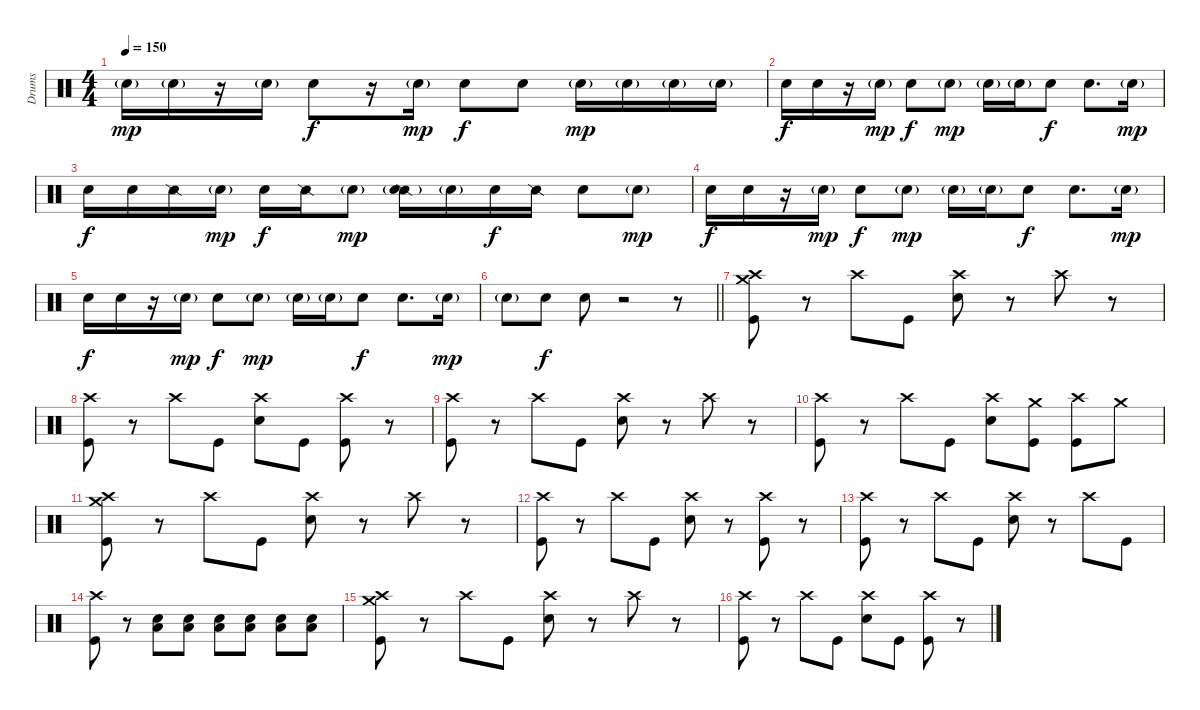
\track ("Drums" "Drums") {instrument percussion}
\staff {score}
\articulation defaults
\ts (4 4)
\tempo 150
\clef neutral
\ks c "Snare (hit) 2"{g}.16{dy mp} "Snare (hit) 2"{g}.16
r.16 "Snare (hit) 2"{g}.16 "Snare (hit) 2".8{dy f} r.16 "Snare (hit) 2"{g}.16{dy mp} "Snare (hit) 2".8{dy f} "Snare (hit) 2".8 "Snare (hit) 2"{g}.16{dy mp} "Snare (hit) 2"{g}.16 "Snare (hit) 2"{g}.16 "Snare (hit) 2"{g}.16 |
"Snare (hit) 2".16{dy f} "Snare (hit) 2".16 r.16 "Snare (hit) 2"{g}.16{dy mp} "Snare (hit) 2".8{dy f} "Snare (hit) 2"{g}.8{dy mp} "Snare (hit) 2"{g}.16 "Snare (hit) 2"{g}.16 "Snare (hit) 2".8{dy f} "Snare (hit) 2".8{d} "Snare (hit) 2"{g}.16{dy mp} |
"Snare (hit) 2".16{dy f} "Snare (hit) 2".16 "Snare (side stick) 2".16 "Snare (hit) 2"{g}.16{dy mp} "Snare (hit) 2".16{dy f} "Snare (side stick) 2".16 "Snare (hit) 2"{g}.8{dy mp} ("Snare (side stick) 2" "Snare (hit) 2"{g}).16 "Snare (hit) 2"{g}.16 "Snare (hit) 2".16{dy f} "Snare (side stick) 2".16 "Snare (hit) 2".8 "Snare (hit) 2"{g}.8{dy mp} |
"Snare (hit) 2".16{dy f} "Snare (hit) 2".16 r.16 "Snare (hit) 2"{g}.16{dy mp} "Snare (hit) 2".8{dy f} "Snare (hit) 2"{g}.8{dy mp} "Snare (hit) 2"{g}.16 "Snare (hit) 2"{g}.16 "Snare (hit) 2".8{dy f} "Snare (hit) 2".8{d} "Snare (hit) 2"{g}.16{dy mp} |
"Snare (hit) 2".16{dy f} "Snare (hit) 2".16 r.16 "Snare (hit) 2"{g}.16{dy mp} "Snare (hit) 2".8{dy f} "Snare (hit) 2"{g}.8{dy mp} "Snare (hit) 2"{g}.16 "Snare (hit) 2"{g}.16 "Snare (hit) 2".8{dy f} "Snare (hit) 2".8{d} "Snare (hit) 2"{g}.16{dy mp} |
\barLineRight lightlight "Snare (hit) 2"{g}.8 "Snare (hit) 2".8{dy f volume 13} "Snare (hit) 2".8
r.2 r.8 |
("Crash medium (hit)" "Crash high (hit)" "Kick (hit)").8 r.8 "Crash high (hit)".8 "Kick (hit)".8 ("Crash high (hit)" "Electric Snare (hit)").8 r.8 "Crash high (hit)".8 r.8 |
("Crash high (hit)" "Kick (hit)").8 r.8 "Crash high (hit)".8 "Kick (hit)".8 ("Crash high (hit)" "Electric Snare (hit)").8 "Kick (hit)".8 ("Crash high (hit)" "Kick (hit)").8 r.8 |
("Crash high (hit)" "Kick (hit)").8 r.8 "Crash high (hit)".8 "Kick (hit)".8 ("Crash high (hit)" "Electric Snare (hit)").8 r.8 "Crash high (hit)".8 r.8 |
("Crash high (hit)" "Kick (hit)").8 r.8 "Crash high (hit)".8 "Kick (hit)".8 ("Crash high (hit)" "Electric Snare (hit)").8 ("Crash medium (hit)" "Kick (hit)").8 ("Crash high (hit)" "Kick (hit)").8 "Crash medium (hit)".8 |
("Crash medium (hit)" "Crash high (hit)" "Kick (hit)").8 r.8 "Crash high (hit)".8 "Kick (hit)".8 ("Crash high (hit)" "Electric Snare (hit)").8 r.8 "Crash high (hit)".8 r.8 |
("Crash high (hit)" "Kick (hit)").8 r.8 "Crash high (hit)".8 "Kick (hit)".8 ("Crash high (hit)" "Electric Snare (hit)").8 r.8 ("Crash high (hit)" "Kick (hit)").8 r.8 |
("Crash high (hit)" "Kick (hit)").8 r.8 "Crash high (hit)".8 "Kick (hit)".8 ("Crash high (hit)" "Electric Snare (hit)").8 r.8 "Crash high (hit)".8 "Kick (hit)".8 |
("Crash high (hit)" "Kick (hit)").8 r.8{volume 8} ("Electric Snare (hit)" "Low Floor Tom (hit)").8{volume 13} ("Electric Snare (hit)" "Low Floor Tom (hit)").8 ("Electric Snare (hit)" "Low Floor Tom (hit)").8 ("Electric Snare (hit)" "Low Floor Tom (hit)").8 ("Electric Snare (hit)" "Low Floor Tom (hit)").8 ("Electric Snare (hit)" "Low Floor Tom (hit)").8 |
("Crash medium (hit)" "Crash high (hit)" "Kick (hit)").8 r.8 "Crash high (hit)".8 "Kick (hit)".8 ("Crash high (hit)" "Electric Snare (hit)").8 r.8 "Crash high (hit)".8 r.8 |
("Crash high (hit)" "Kick (hit)").8 r.8 "Crash high (hit)".8 "Kick (hit)".8 ("Crash high (hit)" "Electric Snare (hit)").8 "Kick (hit)".8 ("Crash high (hit)" "Kick (hit)").8 r.8
